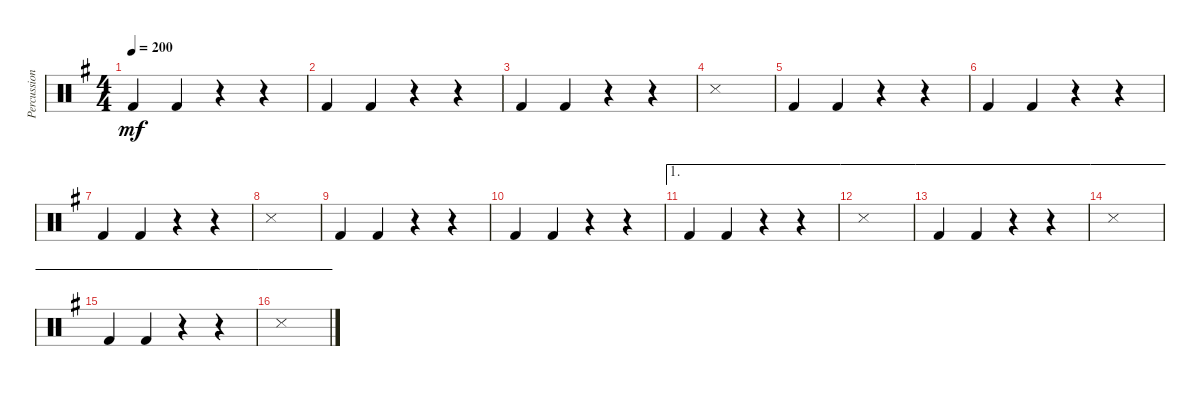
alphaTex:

\track ("Percussion" "Percussion") {instrument percussion}
\staff {score}
\articulation defaults
\ts (4 4)
\tempo 200
\clef neutral
\ks g "Kick (hit) 2".4{dy mf} "Kick (hit) 2".4
r.4 r.4 |
"Kick (hit) 2".4 "Kick (hit) 2".4 r.4 r.4 |
"Kick (hit) 2".4 "Kick (hit) 2".4 r.4 r.4 |
"Snare (side stick) 3".1 |
"Kick (hit) 2".4 "Kick (hit) 2".4 r.4 r.4 |
"Kick (hit) 2".4 "Kick (hit) 2".4 r.4 r.4 |
"Kick (hit) 2".4 "Kick (hit) 2".4 r.4 r.4 |
"Snare (side stick) 3".1 |
"Kick (hit) 2".4 "Kick (hit) 2".4 r.4 r.4 |
"Kick (hit) 2".4 "Kick (hit) 2".4 r.4 r.4 |
\ae 1 "Kick (hit) 2".4 "Kick (hit) 2".4
r.4 r.4 |
\ae 1 "Snare (side stick) 3".1
|
\ae 1 "Kick (hit) 2".4 "Kick (hit) 2".4
r.4 r.4 |
\ae 1 "Snare (side stick) 3".1
|
\ae 1 "Kick (hit) 2".4 "Kick (hit) 2".4
r.4 r.4 |
\ae 1 "Snare (side stick) 3".1
